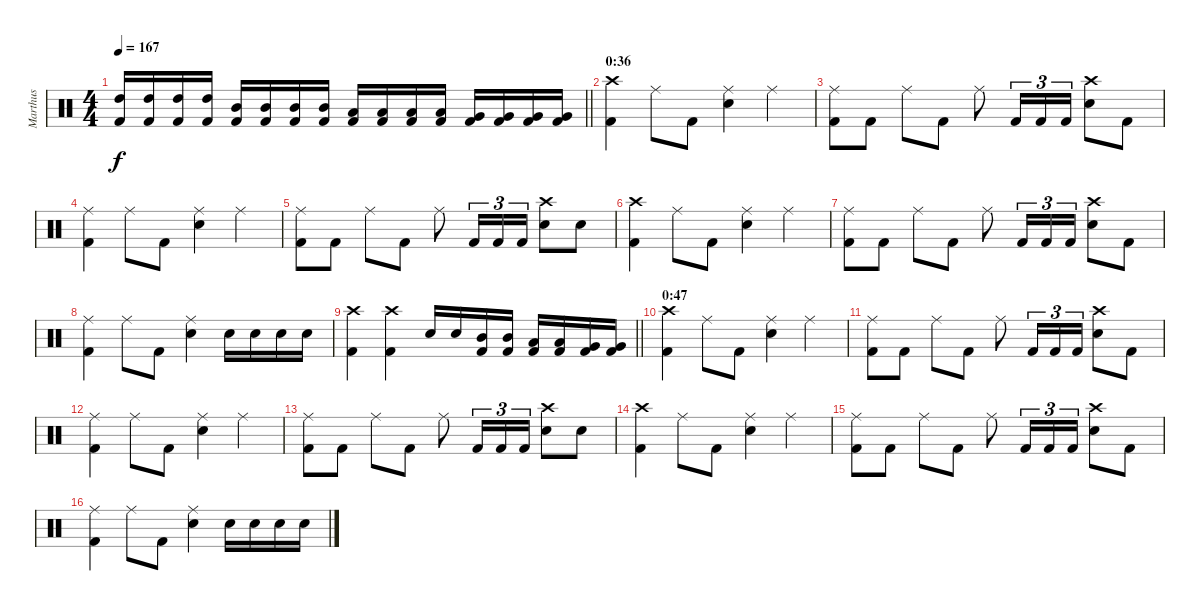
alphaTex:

\track ("Marthus" "Marthus") {instrument percussion}
\staff {score}
\articulation defaults
\ts (4 4)
\tempo 167
\clef neutral
\barLineRight lightlight
\ks c
("Kick (hit) 2" "High Tom (hit)").16{dy f} ("Kick (hit) 2" "High Tom (hit)").16 ("Kick (hit) 2" "High Tom (hit)").16 ("Kick (hit) 2" "High Tom (hit)").16 ("Kick (hit) 2" "Mid Tom (hit)").16 ("Kick (hit) 2" "Mid Tom (hit)").16 ("Kick (hit) 2" "Mid Tom (hit)").16 ("Kick (hit) 2" "Mid Tom (hit)").16 ("Kick (hit) 2" "Low Tom (hit)").16 ("Kick (hit) 2" "Low Tom (hit)").16 ("Kick (hit) 2" "Low Tom (hit)").16 ("Kick (hit) 2" "Low Tom (hit)").16 ("Kick (hit) 2" "Very Low Tom (hit)").16 ("Kick (hit) 2" "Very Low Tom (hit)").16 ("Kick (hit) 2" "Very Low Tom (hit)").16 ("Kick (hit) 2" "Very Low Tom (hit)").16 |
\section ("" "0:36")
("Kick (hit) 2" "Crash high (hit)").4 "Ride (middle)".8 "Kick (hit) 2".8 ("Snare (hit) 2" "Ride (middle)").4 "Ride (middle)".4 |
("Kick (hit) 2" "Ride (middle)").8 "Kick (hit) 2".8 "Ride (middle)".8 "Kick (hit) 2".8 "Ride (middle)".8 "Kick (hit) 2".16{tu (3 2)} "Kick (hit) 2".16{tu (3 2)} "Kick (hit) 2".16{tu (3 2)} ("Snare (hit) 2" "Crash high (hit)").8 "Kick (hit) 2".8 |
("Kick (hit) 2" "Ride (middle)").4 "Ride (middle)".8 "Kick (hit) 2".8 ("Snare (hit) 2" "Ride (middle)").4 "Ride (middle)".4 |
("Kick (hit) 2" "Ride (middle)").8 "Kick (hit) 2".8 "Ride (middle)".8 "Kick (hit) 2".8 "Ride (middle)".8 "Kick (hit) 2".16{tu (3 2)} "Kick (hit) 2".16{tu (3 2)} "Kick (hit) 2".16{tu (3 2)} ("Snare (hit) 2" "Crash high (hit)").8 "Snare (hit) 2".8 |
("Kick (hit) 2" "Crash high (hit)").4 "Ride (middle)".8 "Kick (hit) 2".8 ("Snare (hit) 2" "Ride (middle)").4 "Ride (middle)".4 |
("Kick (hit) 2" "Ride (middle)").8 "Kick (hit) 2".8 "Ride (middle)".8 "Kick (hit) 2".8 "Ride (middle)".8 "Kick (hit) 2".16{tu (3 2)} "Kick (hit) 2".16{tu (3 2)} "Kick (hit) 2".16{tu (3 2)} ("Snare (hit) 2" "Crash high (hit)").8 "Kick (hit) 2".8 |
("Kick (hit) 2" "Ride (middle)").4 "Ride (middle)".8 "Kick (hit) 2".8 ("Snare (hit) 2" "Ride (middle)").4 "Snare (hit) 2".16 "Snare (hit) 2".16 "Snare (hit) 2".16 "Snare (hit) 2".16 |
\barLineRight lightlight
("Kick (hit) 2" "Crash high (hit)").4 ("Kick (hit) 2" "Crash high (hit)").4 "Snare (hit) 2".16 "Snare (hit) 2".16 ("Kick (hit) 2" "Mid Tom (hit)").16 ("Kick (hit) 2" "Mid Tom (hit)").16 ("Kick (hit) 2" "Low Tom (hit)").16 ("Kick (hit) 2" "Low Tom (hit)").16 ("Kick (hit) 2" "Very Low Tom (hit)").16 ("Kick (hit) 2" "Very Low Tom (hit)").16 |
\section ("" "0:47")
("Kick (hit) 2" "Crash high (hit)").4 "Ride (middle)".8 "Kick (hit) 2".8 ("Snare (hit) 2" "Ride (middle)").4 "Ride (middle)".4 |
("Kick (hit) 2" "Ride (middle)").8 "Kick (hit) 2".8 "Ride (middle)".8 "Kick (hit) 2".8 "Ride (middle)".8 "Kick (hit) 2".16{tu (3 2)} "Kick (hit) 2".16{tu (3 2)} "Kick (hit) 2".16{tu (3 2)} ("Snare (hit) 2" "Crash high (hit)").8 "Kick (hit) 2".8 |
("Kick (hit) 2" "Ride (middle)").4 "Ride (middle)".8 "Kick (hit) 2".8 ("Snare (hit) 2" "Ride (middle)").4 "Ride (middle)".4 |
("Kick (hit) 2" "Ride (middle)").8 "Kick (hit) 2".8 "Ride (middle)".8 "Kick (hit) 2".8 "Ride (middle)".8 "Kick (hit) 2".16{tu (3 2)} "Kick (hit) 2".16{tu (3 2)} "Kick (hit) 2".16{tu (3 2)} ("Snare (hit) 2" "Crash high (hit)").8 "Snare (hit) 2".8 |
("Kick (hit) 2" "Crash high (hit)").4 "Ride (middle)".8 "Kick (hit) 2".8 ("Snare (hit) 2" "Ride (middle)").4 "Ride (middle)".4 |
("Kick (hit) 2" "Ride (middle)").8 "Kick (hit) 2".8 "Ride (middle)".8 "Kick (hit) 2".8 "Ride (middle)".8 "Kick (hit) 2".16{tu (3 2)} "Kick (hit) 2".16{tu (3 2)} "Kick (hit) 2".16{tu (3 2)} ("Snare (hit) 2" "Crash high (hit)").8 "Kick (hit) 2".8 |
("Kick (hit) 2" "Ride (middle)").4 "Ride (middle)".8 "Kick (hit) 2".8 ("Snare (hit) 2" "Ride (middle)").4 "Snare (hit) 2".16 "Snare (hit) 2".16 "Snare (hit) 2".16 "Snare (hit) 2".16
